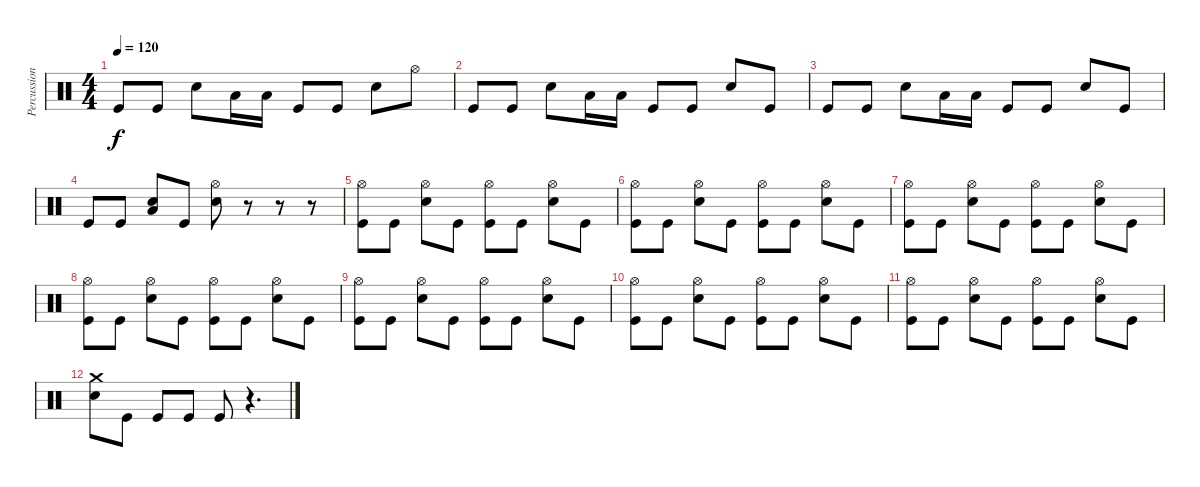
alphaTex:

\track ("Percussion" "Percussion") {instrument percussion}
\staff {score}
\articulation defaults
\ts (4 4)
\tempo 120
\clef neutral
\ks c "Kick (hit)".8{dy f} "Kick (hit)".8 "Electric Snare (hit)".8 "Low Floor Tom (hit)".16 "Low Floor Tom (hit)".16 "Kick (hit)".8 "Kick (hit)".8 "Electric Snare (hit)".8 "Hi-Hat (open)".8
|
"Kick (hit)".8 "Kick (hit)".8 "Electric Snare (hit)".8 "Low Floor Tom (hit)".16 "Low Floor Tom (hit)".16 "Kick (hit)".8 "Kick (hit)".8 "Electric Snare (hit)".8 "Kick (hit)".8 |
"Kick (hit)".8 "Kick (hit)".8 "Electric Snare (hit)".8 "Low Floor Tom (hit)".16 "Low Floor Tom (hit)".16 "Kick (hit)".8 "Kick (hit)".8 "Electric Snare (hit)".8 "Kick (hit)".8 |
"Kick (hit)".8 "Kick (hit)".8 ("Low Floor Tom (hit)" "Electric Snare (hit)").8 "Kick (hit)".8 ("Hi-Hat (open)" "Electric Snare (hit)").8 r.8 r.8 r.8 |
("Hi-Hat (open)" "Kick (hit)").8 "Kick (hit)".8 ("Hi-Hat (open)" "Electric Snare (hit)").8 "Kick (hit)".8 ("Hi-Hat (open)" "Kick (hit)").8 "Kick (hit)".8 ("Hi-Hat (open)" "Electric Snare (hit)").8 "Kick (hit)".8 |
("Hi-Hat (open)" "Kick (hit)").8 "Kick (hit)".8 ("Hi-Hat (open)" "Electric Snare (hit)").8 "Kick (hit)".8 ("Hi-Hat (open)" "Kick (hit)").8 "Kick (hit)".8 ("Hi-Hat (open)" "Electric Snare (hit)").8 "Kick (hit)".8 |
("Hi-Hat (open)" "Kick (hit)").8 "Kick (hit)".8 ("Hi-Hat (open)" "Electric Snare (hit)").8 "Kick (hit)".8 ("Hi-Hat (open)" "Kick (hit)").8 "Kick (hit)".8 ("Hi-Hat (open)" "Electric Snare (hit)").8 "Kick (hit)".8 |
("Hi-Hat (open)" "Kick (hit)").8 "Kick (hit)".8 ("Hi-Hat (open)" "Electric Snare (hit)").8 "Kick (hit)".8 ("Hi-Hat (open)" "Kick (hit)").8 "Kick (hit)".8 ("Hi-Hat (open)" "Electric Snare (hit)").8 "Kick (hit)".8 |
("Hi-Hat (open)" "Kick (hit)").8 "Kick (hit)".8 ("Hi-Hat (open)" "Electric Snare (hit)").8 "Kick (hit)".8 ("Hi-Hat (open)" "Kick (hit)").8 "Kick (hit)".8 ("Hi-Hat (open)" "Electric Snare (hit)").8 "Kick (hit)".8 |
("Hi-Hat (open)" "Kick (hit)").8 "Kick (hit)".8 ("Hi-Hat (open)" "Electric Snare (hit)").8 "Kick (hit)".8 ("Hi-Hat (open)" "Kick (hit)").8 "Kick (hit)".8 ("Hi-Hat (open)" "Electric Snare (hit)").8 "Kick (hit)".8 |
("Hi-Hat (open)" "Kick (hit)").8 "Kick (hit)".8 ("Hi-Hat (open)" "Electric Snare (hit)").8 "Kick (hit)".8 ("Hi-Hat (open)" "Kick (hit)").8 "Kick (hit)".8 ("Hi-Hat (open)" "Electric Snare (hit)").8 "Kick (hit)".8 |
("Crash medium (hit)" "Electric Snare (hit)").8 "Kick (hit)".8 "Kick (hit)".8 "Kick (hit)".8 "Kick (hit)".8 r.4{d}
